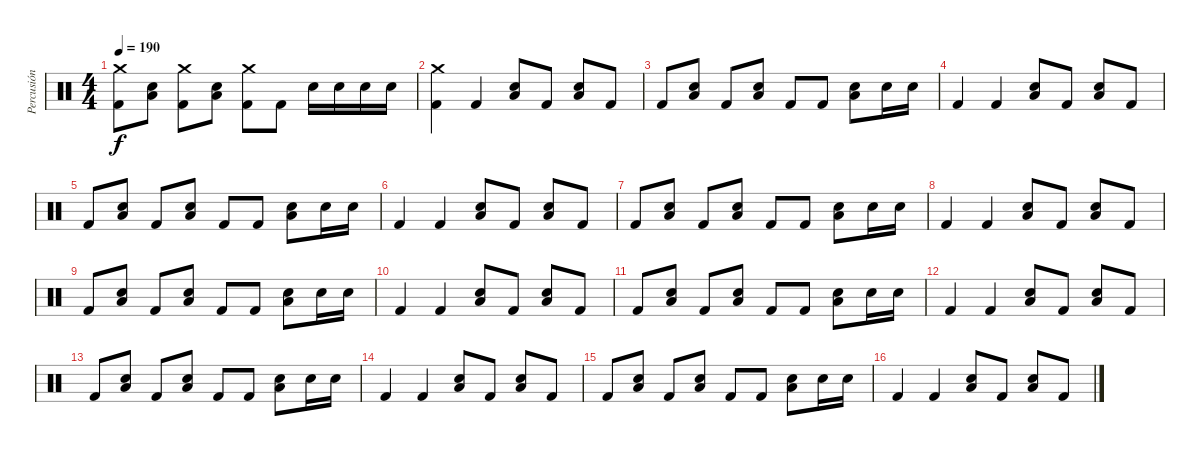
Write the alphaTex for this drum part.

\track ("Percusión" "Percusión") {instrument percussion}
\staff {score}
\articulation defaults
\ts (4 4)
\tempo 190
\clef neutral
\ks c
("Crash medium (hit)" "Kick (hit) 2").8{dy f} ("Low Tom (hit)" "Snare (hit) 2").8 ("Crash medium (hit)" "Kick (hit) 2").8 ("Low Tom (hit)" "Snare (hit) 2").8 ("Crash medium (hit)" "Kick (hit) 2").8 "Kick (hit) 2".8 "Snare (hit) 2".16 "Snare (hit) 2".16 "Snare (hit) 2".16 "Snare (hit) 2".16 |
("Crash medium (hit)" "Kick (hit) 2").4 "Kick (hit) 2".4 ("Low Tom (hit)" "Snare (hit) 2").8 "Kick (hit) 2".8 ("Low Tom (hit)" "Snare (hit) 2").8 "Kick (hit) 2".8 |
"Kick (hit) 2".8 ("Low Tom (hit)" "Snare (hit) 2").8 "Kick (hit) 2".8 ("Low Tom (hit)" "Snare (hit) 2").8 "Kick (hit) 2".8 "Kick (hit) 2".8 ("Low Tom (hit)" "Snare (hit) 2").8 "Snare (hit) 2".16 "Snare (hit) 2".16 |
"Kick (hit) 2".4 "Kick (hit) 2".4 ("Low Tom (hit)" "Snare (hit) 2").8 "Kick (hit) 2".8 ("Low Tom (hit)" "Snare (hit) 2").8 "Kick (hit) 2".8 |
"Kick (hit) 2".8 ("Low Tom (hit)" "Snare (hit) 2").8 "Kick (hit) 2".8 ("Low Tom (hit)" "Snare (hit) 2").8 "Kick (hit) 2".8 "Kick (hit) 2".8 ("Low Tom (hit)" "Snare (hit) 2").8 "Snare (hit) 2".16 "Snare (hit) 2".16 |
"Kick (hit) 2".4 "Kick (hit) 2".4 ("Low Tom (hit)" "Snare (hit) 2").8 "Kick (hit) 2".8 ("Low Tom (hit)" "Snare (hit) 2").8 "Kick (hit) 2".8 |
"Kick (hit) 2".8 ("Low Tom (hit)" "Snare (hit) 2").8 "Kick (hit) 2".8 ("Low Tom (hit)" "Snare (hit) 2").8 "Kick (hit) 2".8 "Kick (hit) 2".8 ("Low Tom (hit)" "Snare (hit) 2").8 "Snare (hit) 2".16 "Snare (hit) 2".16 |
"Kick (hit) 2".4 "Kick (hit) 2".4 ("Low Tom (hit)" "Snare (hit) 2").8 "Kick (hit) 2".8 ("Low Tom (hit)" "Snare (hit) 2").8 "Kick (hit) 2".8 |
"Kick (hit) 2".8 ("Low Tom (hit)" "Snare (hit) 2").8 "Kick (hit) 2".8 ("Low Tom (hit)" "Snare (hit) 2").8 "Kick (hit) 2".8 "Kick (hit) 2".8 ("Low Tom (hit)" "Snare (hit) 2").8 "Snare (hit) 2".16 "Snare (hit) 2".16 |
"Kick (hit) 2".4 "Kick (hit) 2".4 ("Low Tom (hit)" "Snare (hit) 2").8 "Kick (hit) 2".8 ("Low Tom (hit)" "Snare (hit) 2").8 "Kick (hit) 2".8 |
"Kick (hit) 2".8 ("Low Tom (hit)" "Snare (hit) 2").8 "Kick (hit) 2".8 ("Low Tom (hit)" "Snare (hit) 2").8 "Kick (hit) 2".8 "Kick (hit) 2".8 ("Low Tom (hit)" "Snare (hit) 2").8 "Snare (hit) 2".16 "Snare (hit) 2".16 |
"Kick (hit) 2".4 "Kick (hit) 2".4 ("Low Tom (hit)" "Snare (hit) 2").8 "Kick (hit) 2".8 ("Low Tom (hit)" "Snare (hit) 2").8 "Kick (hit) 2".8 |
"Kick (hit) 2".8 ("Low Tom (hit)" "Snare (hit) 2").8 "Kick (hit) 2".8 ("Low Tom (hit)" "Snare (hit) 2").8 "Kick (hit) 2".8 "Kick (hit) 2".8 ("Low Tom (hit)" "Snare (hit) 2").8 "Snare (hit) 2".16 "Snare (hit) 2".16 |
"Kick (hit) 2".4 "Kick (hit) 2".4 ("Low Tom (hit)" "Snare (hit) 2").8 "Kick (hit) 2".8 ("Low Tom (hit)" "Snare (hit) 2").8 "Kick (hit) 2".8 |
"Kick (hit) 2".8 ("Low Tom (hit)" "Snare (hit) 2").8 "Kick (hit) 2".8 ("Low Tom (hit)" "Snare (hit) 2").8 "Kick (hit) 2".8 "Kick (hit) 2".8 ("Low Tom (hit)" "Snare (hit) 2").8 "Snare (hit) 2".16 "Snare (hit) 2".16 |
"Kick (hit) 2".4 "Kick (hit) 2".4 ("Low Tom (hit)" "Snare (hit) 2").8 "Kick (hit) 2".8 ("Low Tom (hit)" "Snare (hit) 2").8 "Kick (hit) 2".8
